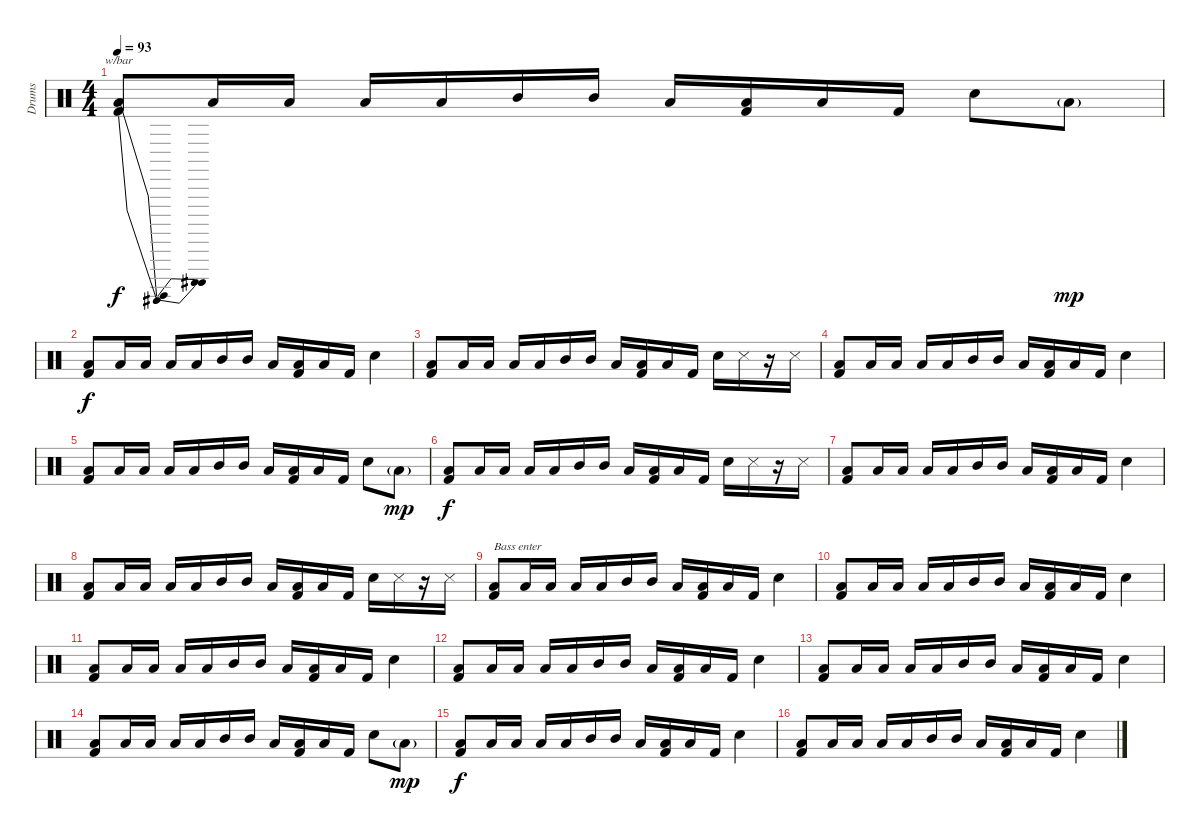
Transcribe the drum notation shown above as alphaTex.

\track ("Drums" "Drums") {instrument percussion}
\staff {score}
\articulation defaults
\ts (4 4)
\tempo 93
\clef neutral
\ks c
("Low Floor Tom (hit)" "Kick (hit) 2").8{tbe (dip default 0 0 30 -12 60 0) dy f} "Low Floor Tom (hit)".16 "Low Tom (hit)".16 "Low Tom (hit)".16 "Low Floor Tom (hit)".16 "Mid Tom (hit)".16 "Mid Tom (hit)".16 "Low Floor Tom (hit)".16 ("Low Tom (hit)" "Kick (hit) 2").16 "Low Floor Tom (hit)".16 "Kick (hit) 2".16 "Snare (hit) 2".8 "Low Tom (hit)"{g}.8{dy mp} |
("Low Floor Tom (hit)" "Kick (hit) 2").8{dy f} "Low Floor Tom (hit)".16 "Low Tom (hit)".16 "Low Tom (hit)".16 "Low Floor Tom (hit)".16 "Mid Tom (hit)".16 "Mid Tom (hit)".16 "Low Floor Tom (hit)".16 ("Low Tom (hit)" "Kick (hit) 2").16 "Low Floor Tom (hit)".16 "Kick (hit) 2".16 "Snare (hit) 2".4 |
("Low Floor Tom (hit)" "Kick (hit) 2").8 "Low Floor Tom (hit)".16 "Low Tom (hit)".16 "Low Tom (hit)".16 "Low Floor Tom (hit)".16 "Mid Tom (hit)".16 "Mid Tom (hit)".16 "Low Floor Tom (hit)".16 ("Low Tom (hit)" "Kick (hit) 2").16 "Low Floor Tom (hit)".16 "Kick (hit) 2".16 "Snare (hit) 2".16 "Snare (side stick) 3".16 r.16 "Snare (side stick) 3".16 |
("Low Floor Tom (hit)" "Kick (hit) 2").8 "Low Floor Tom (hit)".16 "Low Tom (hit)".16 "Low Tom (hit)".16 "Low Floor Tom (hit)".16 "Mid Tom (hit)".16 "Mid Tom (hit)".16 "Low Floor Tom (hit)".16 ("Low Tom (hit)" "Kick (hit) 2").16 "Low Floor Tom (hit)".16 "Kick (hit) 2".16 "Snare (hit) 2".4 |
("Low Floor Tom (hit)" "Kick (hit) 2").8 "Low Floor Tom (hit)".16 "Low Tom (hit)".16 "Low Tom (hit)".16 "Low Floor Tom (hit)".16 "Mid Tom (hit)".16 "Mid Tom (hit)".16 "Low Floor Tom (hit)".16 ("Low Tom (hit)" "Kick (hit) 2").16 "Low Floor Tom (hit)".16 "Kick (hit) 2".16 "Snare (hit) 2".8 "Low Tom (hit)"{g}.8{dy mp} |
("Low Floor Tom (hit)" "Kick (hit) 2").8{dy f} "Low Floor Tom (hit)".16 "Low Tom (hit)".16 "Low Tom (hit)".16 "Low Floor Tom (hit)".16 "Mid Tom (hit)".16 "Mid Tom (hit)".16 "Low Floor Tom (hit)".16 ("Low Tom (hit)" "Kick (hit) 2").16 "Low Floor Tom (hit)".16 "Kick (hit) 2".16 "Snare (hit) 2".16 "Snare (side stick) 3".16 r.16 "Snare (side stick) 3".16 |
("Low Floor Tom (hit)" "Kick (hit) 2").8 "Low Floor Tom (hit)".16 "Low Tom (hit)".16 "Low Tom (hit)".16 "Low Floor Tom (hit)".16 "Mid Tom (hit)".16 "Mid Tom (hit)".16 "Low Floor Tom (hit)".16 ("Low Tom (hit)" "Kick (hit) 2").16 "Low Floor Tom (hit)".16 "Kick (hit) 2".16 "Snare (hit) 2".4 |
("Low Floor Tom (hit)" "Kick (hit) 2").8 "Low Floor Tom (hit)".16 "Low Tom (hit)".16 "Low Tom (hit)".16 "Low Floor Tom (hit)".16 "Mid Tom (hit)".16 "Mid Tom (hit)".16 "Low Floor Tom (hit)".16 ("Low Tom (hit)" "Kick (hit) 2").16 "Low Floor Tom (hit)".16 "Kick (hit) 2".16 "Snare (hit) 2".16 "Snare (side stick) 3".16 r.16 "Snare (side stick) 3".16 |
("Low Floor Tom (hit)" "Kick (hit) 2").8{txt "Bass enter"} "Low Floor Tom (hit)".16 "Low Tom (hit)".16 "Low Tom (hit)".16 "Low Floor Tom (hit)".16 "Mid Tom (hit)".16 "Mid Tom (hit)".16 "Low Floor Tom (hit)".16 ("Low Tom (hit)" "Kick (hit) 2").16 "Low Floor Tom (hit)".16 "Kick (hit) 2".16 "Snare (hit) 2".4 |
("Low Floor Tom (hit)" "Kick (hit) 2").8 "Low Floor Tom (hit)".16 "Low Tom (hit)".16 "Low Tom (hit)".16 "Low Floor Tom (hit)".16 "Mid Tom (hit)".16 "Mid Tom (hit)".16 "Low Floor Tom (hit)".16 ("Low Tom (hit)" "Kick (hit) 2").16 "Low Floor Tom (hit)".16 "Kick (hit) 2".16 "Snare (hit) 2".4 |
("Low Floor Tom (hit)" "Kick (hit) 2").8 "Low Floor Tom (hit)".16 "Low Tom (hit)".16 "Low Tom (hit)".16 "Low Floor Tom (hit)".16 "Mid Tom (hit)".16 "Mid Tom (hit)".16 "Low Floor Tom (hit)".16 ("Low Tom (hit)" "Kick (hit) 2").16 "Low Floor Tom (hit)".16 "Kick (hit) 2".16 "Snare (hit) 2".4 |
("Low Floor Tom (hit)" "Kick (hit) 2").8 "Low Floor Tom (hit)".16 "Low Tom (hit)".16 "Low Tom (hit)".16 "Low Floor Tom (hit)".16 "Mid Tom (hit)".16 "Mid Tom (hit)".16 "Low Floor Tom (hit)".16 ("Low Tom (hit)" "Kick (hit) 2").16 "Low Floor Tom (hit)".16 "Kick (hit) 2".16 "Snare (hit) 2".4 |
("Low Floor Tom (hit)" "Kick (hit) 2").8 "Low Floor Tom (hit)".16 "Low Tom (hit)".16 "Low Tom (hit)".16 "Low Floor Tom (hit)".16 "Mid Tom (hit)".16 "Mid Tom (hit)".16 "Low Floor Tom (hit)".16 ("Low Tom (hit)" "Kick (hit) 2").16 "Low Floor Tom (hit)".16 "Kick (hit) 2".16 "Snare (hit) 2".4 |
("Low Floor Tom (hit)" "Kick (hit) 2").8 "Low Floor Tom (hit)".16 "Low Tom (hit)".16 "Low Tom (hit)".16 "Low Floor Tom (hit)".16 "Mid Tom (hit)".16 "Mid Tom (hit)".16 "Low Floor Tom (hit)".16 ("Low Tom (hit)" "Kick (hit) 2").16 "Low Floor Tom (hit)".16 "Kick (hit) 2".16 "Snare (hit) 2".8 "Low Tom (hit)"{g}.8{dy mp} |
("Low Floor Tom (hit)" "Kick (hit) 2").8{dy f} "Low Floor Tom (hit)".16 "Low Tom (hit)".16 "Low Tom (hit)".16 "Low Floor Tom (hit)".16 "Mid Tom (hit)".16 "Mid Tom (hit)".16 "Low Floor Tom (hit)".16 ("Low Tom (hit)" "Kick (hit) 2").16 "Low Floor Tom (hit)".16 "Kick (hit) 2".16 "Snare (hit) 2".4 |
("Low Floor Tom (hit)" "Kick (hit) 2").8 "Low Floor Tom (hit)".16 "Low Tom (hit)".16 "Low Tom (hit)".16 "Low Floor Tom (hit)".16 "Mid Tom (hit)".16 "Mid Tom (hit)".16 "Low Floor Tom (hit)".16 ("Low Tom (hit)" "Kick (hit) 2").16 "Low Floor Tom (hit)".16 "Kick (hit) 2".16 "Snare (hit) 2".4
